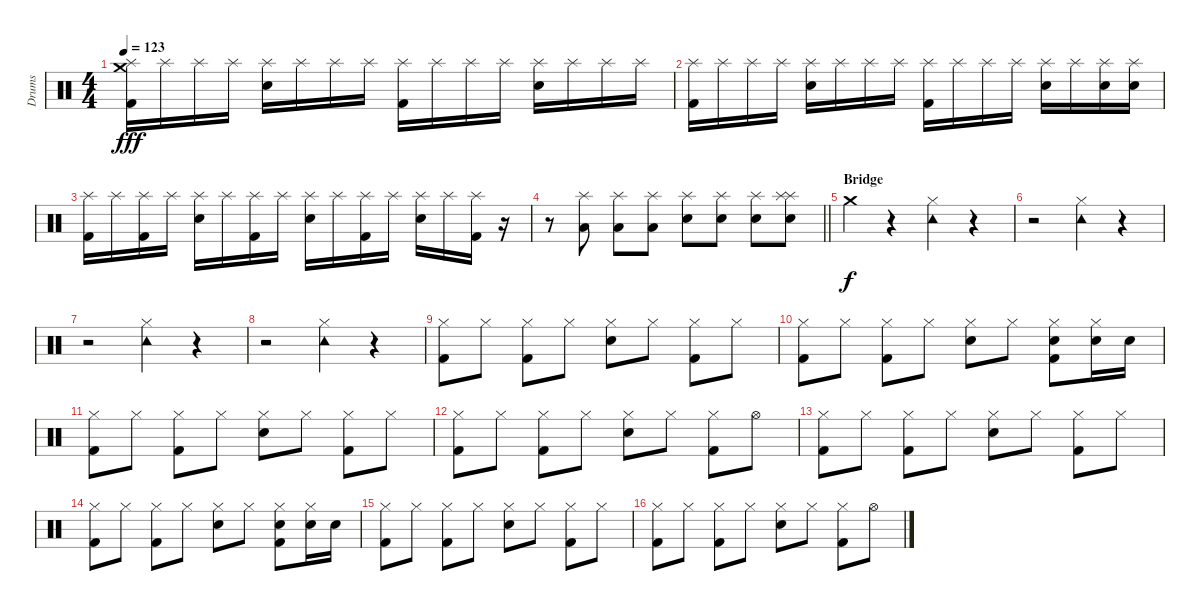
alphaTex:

\track ("Drums" "Drums") {instrument percussion}
\staff {score}
\articulation defaults
\ts (4 4)
\tempo 123
\clef neutral
\ks c
("Crash medium (hit)" "Splash (hit)" "Kick (hit) 2").16{dy fff} "Splash (hit)".16 "Splash (hit)".16 "Splash (hit)".16 ("Splash (hit)" "Electric Snare (hit)").16 "Splash (hit)".16 "Splash (hit)".16 "Splash (hit)".16 ("Splash (hit)" "Kick (hit) 2").16 "Splash (hit)".16 "Splash (hit)".16 "Splash (hit)".16 ("Splash (hit)" "Electric Snare (hit)").16 "Splash (hit)".16 "Splash (hit)".16 "Splash (hit)".16 |
("Splash (hit)" "Kick (hit) 2").16 "Splash (hit)".16 "Splash (hit)".16 "Splash (hit)".16 ("Splash (hit)" "Electric Snare (hit)").16 "Splash (hit)".16 "Splash (hit)".16 "Splash (hit)".16 ("Splash (hit)" "Kick (hit) 2").16 "Splash (hit)".16 "Splash (hit)".16 "Splash (hit)".16 ("Splash (hit)" "Electric Snare (hit)").16 "Splash (hit)".16 ("Splash (hit)" "Electric Snare (hit)").16 ("Splash (hit)" "Electric Snare (hit)").16 |
("Splash (hit)" "Kick (hit) 2").16 "Splash (hit)".16 ("Splash (hit)" "Kick (hit) 2").16 "Splash (hit)".16 ("Splash (hit)" "Electric Snare (hit)").16 "Splash (hit)".16 ("Splash (hit)" "Kick (hit) 2").16 "Splash (hit)".16 ("Splash (hit)" "Electric Snare (hit)").16 "Splash (hit)".16 ("Splash (hit)" "Kick (hit) 2").16 "Splash (hit)".16 ("Splash (hit)" "Electric Snare (hit)").16 "Splash (hit)".16 ("Splash (hit)" "Kick (hit) 2").16 r.16 |
\barLineRight lightlight
r.8 ("Splash (hit)" "Low Floor Tom (hit)").8 ("Splash (hit)" "Low Floor Tom (hit)").8 ("Splash (hit)" "Low Floor Tom (hit)").8 ("Splash (hit)" "Electric Snare (hit)").8 ("Splash (hit)" "Electric Snare (hit)").8 ("Splash (hit)" "Electric Snare (hit)").8 ("Splash (hit)" "Splash (hit)" "Electric Snare (hit)").8 |
\section ("" "Bridge")
"Crash medium (hit)".4{dy f} r.4 ("Hi-Hat (closed)" "Tambourine (hit)").4 r.4 |
r.2 ("Hi-Hat (closed)" "Tambourine (hit)").4 r.4 |
r.2 ("Hi-Hat (closed)" "Tambourine (hit)").4 r.4 |
r.2 ("Hi-Hat (closed)" "Tambourine (hit)").4 r.4 |
("Hi-Hat (closed)" "Kick (hit) 2").8 "Hi-Hat (closed)".8 ("Hi-Hat (closed)" "Kick (hit) 2").8 "Hi-Hat (closed)".8 ("Hi-Hat (closed)" "Electric Snare (hit)").8 "Hi-Hat (closed)".8 ("Hi-Hat (closed)" "Kick (hit) 2").8 "Hi-Hat (closed)".8 |
("Hi-Hat (closed)" "Kick (hit) 2").8 "Hi-Hat (closed)".8 ("Hi-Hat (closed)" "Kick (hit) 2").8 "Hi-Hat (closed)".8 ("Hi-Hat (closed)" "Electric Snare (hit)").8 "Hi-Hat (closed)".8 ("Hi-Hat (closed)" "Electric Snare (hit)" "Kick (hit) 2").8 ("Hi-Hat (closed)" "Electric Snare (hit)").16 "Electric Snare (hit)".16 |
("Hi-Hat (closed)" "Kick (hit) 2").8 "Hi-Hat (closed)".8 ("Hi-Hat (closed)" "Kick (hit) 2").8 "Hi-Hat (closed)".8 ("Hi-Hat (closed)" "Electric Snare (hit)").8 "Hi-Hat (closed)".8 ("Hi-Hat (closed)" "Kick (hit) 2").8 "Hi-Hat (closed)".8 |
("Hi-Hat (closed)" "Kick (hit) 2").8 "Hi-Hat (closed)".8 ("Hi-Hat (closed)" "Kick (hit) 2").8 "Hi-Hat (closed)".8 ("Hi-Hat (closed)" "Electric Snare (hit)").8 "Hi-Hat (closed)".8 ("Hi-Hat (closed)" "Kick (hit) 2").8 "Hi-Hat (open)".8 |
("Hi-Hat (closed)" "Kick (hit) 2").8 "Hi-Hat (closed)".8 ("Hi-Hat (closed)" "Kick (hit) 2").8 "Hi-Hat (closed)".8 ("Hi-Hat (closed)" "Electric Snare (hit)").8 "Hi-Hat (closed)".8 ("Hi-Hat (closed)" "Kick (hit) 2").8 "Hi-Hat (closed)".8 |
("Hi-Hat (closed)" "Kick (hit) 2").8 "Hi-Hat (closed)".8 ("Hi-Hat (closed)" "Kick (hit) 2").8 "Hi-Hat (closed)".8 ("Hi-Hat (closed)" "Electric Snare (hit)").8 "Hi-Hat (closed)".8 ("Hi-Hat (closed)" "Electric Snare (hit)" "Kick (hit) 2").8 ("Hi-Hat (closed)" "Electric Snare (hit)").16 "Electric Snare (hit)".16 |
("Hi-Hat (closed)" "Kick (hit) 2").8 "Hi-Hat (closed)".8 ("Hi-Hat (closed)" "Kick (hit) 2").8 "Hi-Hat (closed)".8 ("Hi-Hat (closed)" "Electric Snare (hit)").8 "Hi-Hat (closed)".8 ("Hi-Hat (closed)" "Kick (hit) 2").8 "Hi-Hat (closed)".8 |
("Hi-Hat (closed)" "Kick (hit) 2").8 "Hi-Hat (closed)".8 ("Hi-Hat (closed)" "Kick (hit) 2").8 "Hi-Hat (closed)".8 ("Hi-Hat (closed)" "Electric Snare (hit)").8 "Hi-Hat (closed)".8 ("Hi-Hat (closed)" "Kick (hit) 2").8 "Hi-Hat (open)".8
